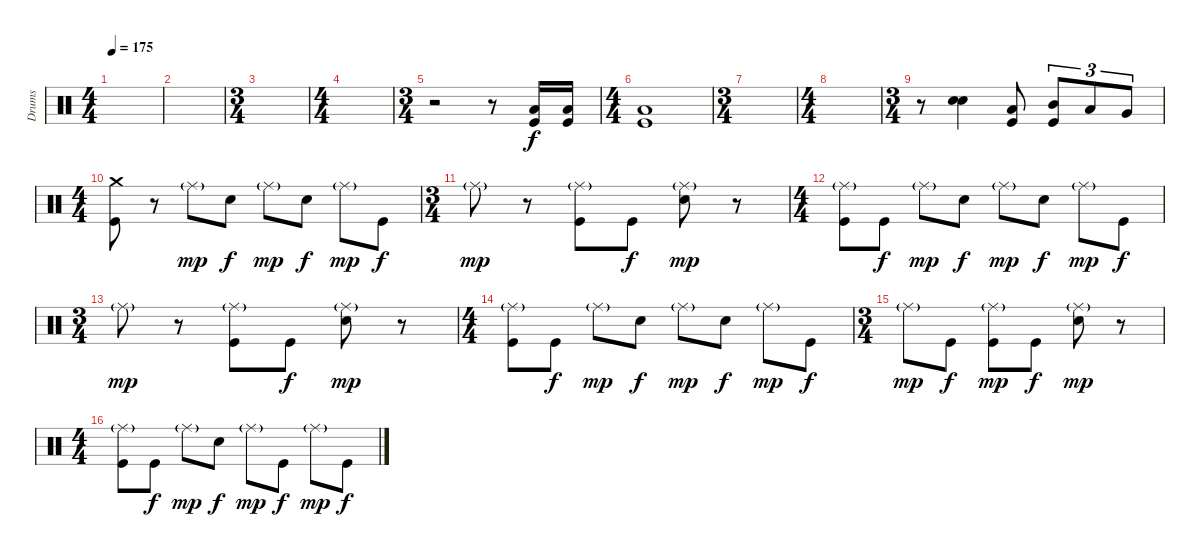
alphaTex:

\track ("Drums" "Drums") {instrument percussion}
\staff {score}
\articulation defaults
\ts (4 4)
\tempo 175
\clef neutral
\ks c
|
|
\ts (3 4)
|
\ts (4 4)
|
\ts (3 4)
r.2 r.8 ("Low Floor Tom (hit)" "Kick (hit)").16 ("Low Floor Tom (hit)" "Kick (hit)").16 |
\ts (4 4)
("Low Floor Tom (hit)" "Kick (hit)").1 |
\ts (3 4)
|
\ts (4 4)
|
\ts (3 4)
r.8 ("Electric Snare (hit)" "Electric Snare (hit)").4 ("Low Tom (hit)" "Kick (hit)").8 ("Mid Tom (hit)" "Kick (hit)").8{tu (3 2)} "Low Tom (hit)".8{tu (3 2)} "Very Low Tom (hit)".8{tu (3 2)} |
\ts (4 4)
("Crash medium (hit)" "Kick (hit)").8 r.8 "Ride (middle)"{g}.8{dy mp} "Electric Snare (hit)".8{dy f} "Ride (middle)"{g}.8{dy mp} "Electric Snare (hit)".8{dy f} "Ride (middle)"{g}.8{dy mp} "Kick (hit)".8{dy f} |
\ts (3 4)
"Ride (middle)"{g}.8{dy mp} r.8 ("Ride (middle)"{g} "Kick (hit)").8 "Kick (hit)".8{dy f} ("Ride (middle)"{g} "Electric Snare (hit)").8{dy mp} r.8 |
\ts (4 4)
("Ride (middle)"{g} "Kick (hit)").8 "Kick (hit)".8{dy f} "Ride (middle)"{g}.8{dy mp} "Electric Snare (hit)".8{dy f} "Ride (middle)"{g}.8{dy mp} "Electric Snare (hit)".8{dy f} "Ride (middle)"{g}.8{dy mp} "Kick (hit)".8{dy f} |
\ts (3 4)
"Ride (middle)"{g}.8{dy mp} r.8 ("Ride (middle)"{g} "Kick (hit)").8 "Kick (hit)".8{dy f} ("Ride (middle)"{g} "Electric Snare (hit)").8{dy mp} r.8 |
\ts (4 4)
("Ride (middle)"{g} "Kick (hit)").8 "Kick (hit)".8{dy f} "Ride (middle)"{g}.8{dy mp} "Electric Snare (hit)".8{dy f} "Ride (middle)"{g}.8{dy mp} "Electric Snare (hit)".8{dy f} "Ride (middle)"{g}.8{dy mp} "Kick (hit)".8{dy f} |
\ts (3 4)
"Ride (middle)"{g}.8{dy mp} "Kick (hit)".8{dy f} ("Ride (middle)"{g} "Kick (hit)").8{dy mp} "Kick (hit)".8{dy f} ("Ride (middle)"{g} "Electric Snare (hit)").8{dy mp} r.8 |
\ts (4 4)
("Ride (middle)"{g} "Kick (hit)").8 "Kick (hit)".8{dy f} "Ride (middle)"{g}.8{dy mp} "Electric Snare (hit)".8{dy f} "Ride (middle)"{g}.8{dy mp} "Kick (hit)".8{dy f} "Ride (middle)"{g}.8{dy mp} "Kick (hit)".8{dy f}
